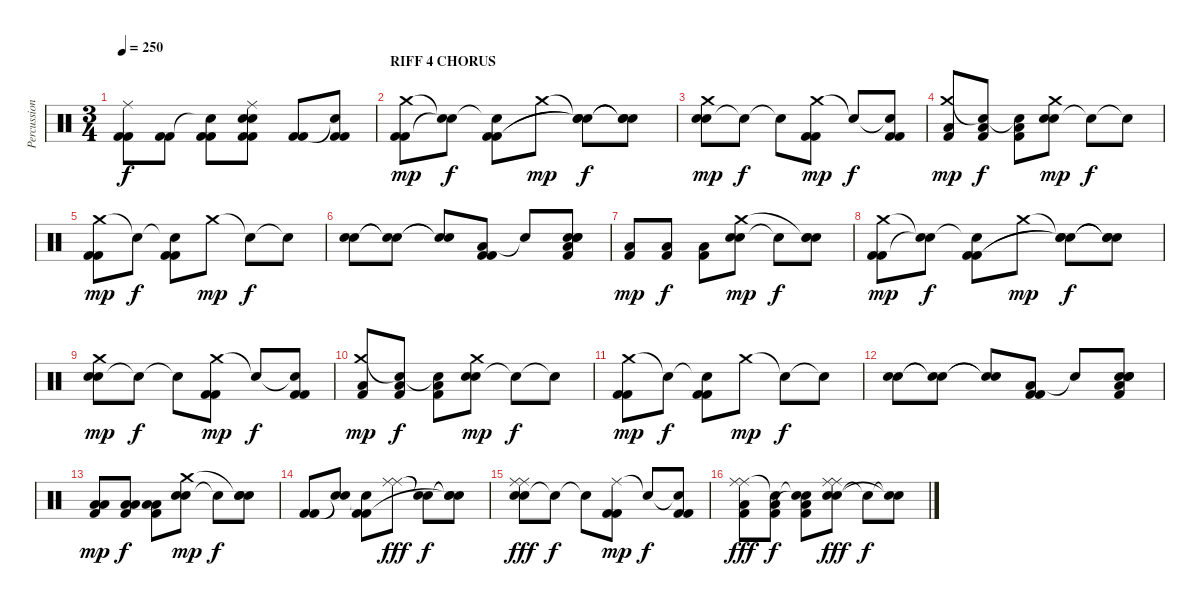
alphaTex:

\track ("Percussion" "Percussion") {instrument percussion}
\staff {score}
\articulation defaults
\ts (3 4)
\tempo 250
\clef neutral
\ks c
("Ride (middle)" "Kick (hit) 2" "Kick (hit) 2").8{dy f} ("Kick (hit) 2" "Kick (hit) 2").8 ("Snare (hit)"{t} "Kick (hit) 2" "Kick (hit) 2").8 ("Snare (hit) 2" "Snare (hit) 2" "Ride (middle)" "Kick (hit) 2" "Kick (hit) 2").8 ("Kick (hit) 2" "Kick (hit) 2").8 ("Snare (hit)"{t} "Kick (hit) 2" "Kick (hit) 2").8 |
\section ("" "RIFF 4 CHORUS")
("Crash medium (hit)" "Kick (hit) 2" "Kick (hit) 2").8{dy mp} ("Snare (hit)"{t} "Snare (hit)"{t}).8{dy f} ("Snare (hit)"{t} "Kick (hit) 2" "Kick (hit) 2").8 "Crash medium (hit)".8{dy mp} ("Snare (hit)"{t} "Snare (hit)"{t} "Snare (hit)"{t}).8{dy f} ("Snare (hit)"{t} "Snare (hit)"{t} "Snare (hit)"{t}).8 |
("Snare (hit) 2" "Snare (hit) 2" "Crash medium (hit)").8{dy mp} "Snare (hit)"{t}.8{dy f} "Snare (hit)"{t}.8 ("Crash medium (hit)" "Kick (hit) 2" "Kick (hit) 2").8{dy mp} "Snare (hit)"{t}.8{dy f} ("Snare (hit)"{t} "Kick (hit) 2" "Kick (hit) 2").8 |
("Low Tom (hit)" "Crash medium (hit)" "Kick (hit) 2").8{dy mp} ("Low Tom (hit)" "Snare (hit)"{t} "Kick (hit) 2").8{dy f} ("Low Tom (hit)" "Snare (hit)"{t} "Kick (hit) 2").8 ("Snare (hit) 2" "Snare (hit) 2" "Crash medium (hit)").8{dy mp} "Snare (hit)"{t}.8{dy f} "Snare (hit)"{t}.8 |
("Crash medium (hit)" "Kick (hit) 2" "Kick (hit) 2").8{dy mp} "Snare (hit)"{t}.8{dy f} ("Snare (hit)"{t} "Kick (hit) 2" "Kick (hit) 2").8 "Crash medium (hit)".8{dy mp} "Snare (hit)"{t}.8{dy f} "Snare (hit)"{t}.8 |
("Snare (hit) 2" "Snare (hit) 2").8 ("Snare (hit)"{t} "Snare (hit)"{t}).8 ("Snare (hit)"{t} "Snare (hit) 2"{t}).8 ("Low Tom (hit)" "Kick (hit) 2" "Kick (hit) 2").8 "Snare (hit)"{t}.8 ("Snare (hit) 2" "Snare (hit) 2" "Low Tom (hit)" "Snare (hit)" "Kick (hit) 2").8 |
("Low Tom (hit)" "Kick (hit) 2").8{dy mp} ("Low Tom (hit)" "Kick (hit) 2").8{dy f} ("Low Tom (hit)" "Kick (hit) 2").8 ("Snare (hit) 2" "Snare (hit) 2" "Crash medium (hit)").8{dy mp} "Snare (hit)"{t}.8{dy f} ("Snare (hit) 2" "Snare (hit) 2" "Snare (hit)"{t}).8 |
("Crash medium (hit)" "Kick (hit) 2" "Kick (hit) 2").8{dy mp} ("Snare (hit)"{t} "Snare (hit)"{t}).8{dy f} ("Snare (hit)"{t} "Kick (hit) 2" "Kick (hit) 2").8 "Crash medium (hit)".8{dy mp} ("Snare (hit)"{t} "Snare (hit)"{t} "Snare (hit)"{t}).8{dy f} ("Snare (hit)"{t} "Snare (hit)"{t} "Snare (hit)"{t}).8 |
("Snare (hit) 2" "Snare (hit) 2" "Crash medium (hit)").8{dy mp} "Snare (hit)"{t}.8{dy f} "Snare (hit)"{t}.8 ("Crash medium (hit)" "Kick (hit) 2" "Kick (hit) 2").8{dy mp} "Snare (hit)"{t}.8{dy f} ("Snare (hit)"{t} "Kick (hit) 2" "Kick (hit) 2").8 |
("Low Tom (hit)" "Crash medium (hit)" "Kick (hit) 2").8{dy mp} ("Low Tom (hit)" "Snare (hit)"{t} "Kick (hit) 2").8{dy f} ("Low Tom (hit)" "Snare (hit)"{t} "Kick (hit) 2").8 ("Snare (hit) 2" "Snare (hit) 2" "Crash medium (hit)").8{dy mp} "Snare (hit)"{t}.8{dy f} "Snare (hit)"{t}.8 |
("Crash medium (hit)" "Kick (hit) 2" "Kick (hit) 2").8{dy mp} "Snare (hit)"{t}.8{dy f} ("Snare (hit)"{t} "Kick (hit) 2" "Kick (hit) 2").8 "Crash medium (hit)".8{dy mp} "Snare (hit)"{t}.8{dy f} "Snare (hit)"{t}.8 |
("Snare (hit) 2" "Snare (hit) 2").8 ("Snare (hit)"{t} "Snare (hit)"{t}).8 ("Snare (hit)"{t} "Snare (hit) 2"{t}).8 ("Low Tom (hit)" "Kick (hit) 2" "Kick (hit) 2").8 "Snare (hit)"{t}.8 ("Snare (hit) 2" "Snare (hit) 2" "Low Tom (hit)" "Snare (hit)" "Kick (hit) 2").8 |
("Low Floor Tom (hit)" "Low Tom (hit)" "Kick (hit) 2").8{dy mp} ("Low Floor Tom (hit)" "Low Tom (hit)" "Kick (hit) 2").8{dy f} ("Low Floor Tom (hit)" "Low Tom (hit)" "Kick (hit) 2").8 ("Snare (hit) 2" "Snare (hit) 2" "Crash medium (hit)").8{dy mp} "Snare (hit)"{t}.8{dy f} ("Snare (hit) 2" "Snare (hit) 2" "Snare (hit)"{t}).8 |
("Kick (hit) 2" "Kick (hit) 2").8 ("Snare (hit)"{t} "Snare (hit)"{t}).8 ("Snare (hit)"{t} "Kick (hit) 2" "Kick (hit) 2").8 ("Ride (middle)" "Ride (middle)").8{dy fff} ("Snare (hit)"{t} "Snare (hit)"{t}).8{dy f} ("Snare (hit)"{t} "Snare (hit)"{t} "Snare (hit)"{t}).8 |
("Snare (hit) 2" "Snare (hit) 2" "Ride (middle)" "Ride (middle)").8{dy fff} "Snare (hit)"{t}.8{dy f} "Snare (hit)"{t}.8 ("Ride (middle)" "Kick (hit) 2" "Kick (hit) 2").8{dy mp} "Snare (hit)"{t}.8{dy f} ("Snare (hit)"{t} "Kick (hit) 2" "Kick (hit) 2").8 |
("Low Tom (hit)" "Ride (middle)" "Ride (middle)" "Kick (hit) 2").8{dy fff} ("Low Tom (hit)" "Snare (hit)"{t} "Kick (hit) 2").8{dy f} ("Low Tom (hit)" "Snare (hit)"{t} "Snare (hit)"{t} "Kick (hit) 2").8 ("Snare (hit) 2" "Snare (hit) 2" "Ride (middle)" "Ride (middle)").8{dy fff} "Snare (hit)"{t}.8{dy f} ("Snare (hit)"{t} "Snare (hit)"{t}).8
